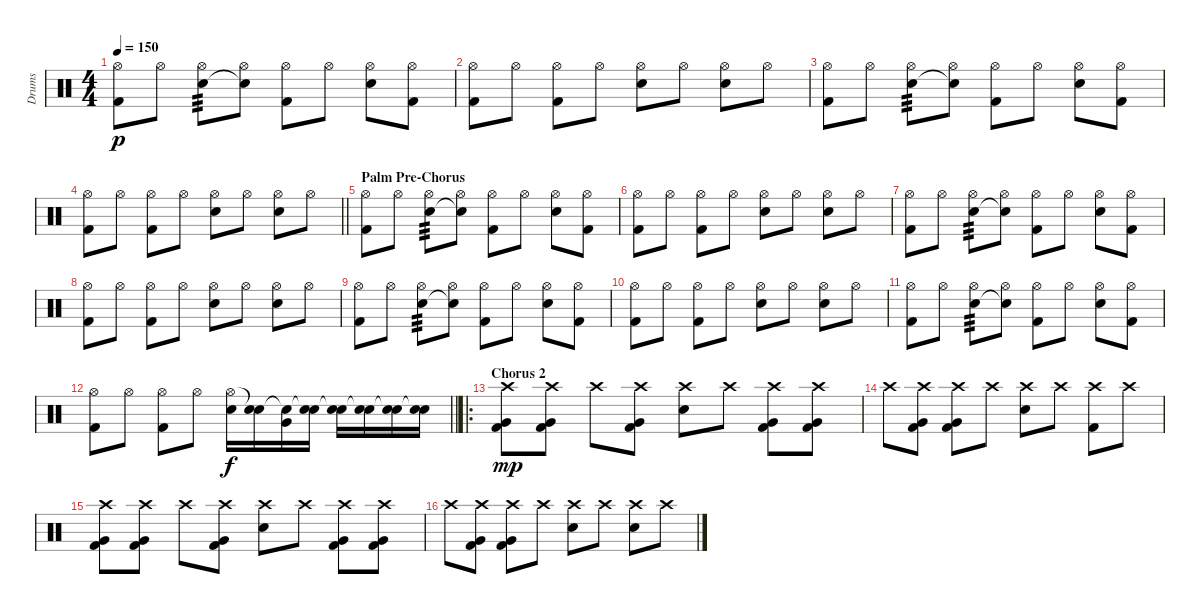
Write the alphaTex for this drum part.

\track ("Drums" "Drums") {instrument percussion}
\staff {score}
\articulation defaults
\ts (4 4)
\tempo 150
\clef neutral
\ks c
("Hi-Hat (open)" "Kick (hit) 2").8{dy p} "Hi-Hat (open)".8 ("Hi-Hat (open)" "Electric Snare (hit)").8{tp 3} ("Hi-Hat (open)" "Electric Snare (hit)"{t}).8 ("Hi-Hat (open)" "Kick (hit) 2").8 "Hi-Hat (open)".8 ("Hi-Hat (open)" "Electric Snare (hit)").8 ("Hi-Hat (open)" "Kick (hit) 2").8 |
("Hi-Hat (open)" "Kick (hit) 2").8 "Hi-Hat (open)".8 ("Hi-Hat (open)" "Kick (hit) 2").8 "Hi-Hat (open)".8 ("Hi-Hat (open)" "Electric Snare (hit)").8 "Hi-Hat (open)".8 ("Hi-Hat (open)" "Electric Snare (hit)").8 "Hi-Hat (open)".8 |
("Hi-Hat (open)" "Kick (hit) 2").8 "Hi-Hat (open)".8 ("Hi-Hat (open)" "Electric Snare (hit)").8{tp 3} ("Hi-Hat (open)" "Electric Snare (hit)"{t}).8 ("Hi-Hat (open)" "Kick (hit) 2").8 "Hi-Hat (open)".8 ("Hi-Hat (open)" "Electric Snare (hit)").8 ("Hi-Hat (open)" "Kick (hit) 2").8 |
\barLineRight lightlight
("Hi-Hat (open)" "Kick (hit) 2").8 "Hi-Hat (open)".8 ("Hi-Hat (open)" "Kick (hit) 2").8 "Hi-Hat (open)".8 ("Hi-Hat (open)" "Electric Snare (hit)").8 "Hi-Hat (open)".8 ("Hi-Hat (open)" "Electric Snare (hit)").8 "Hi-Hat (open)".8 |
\section ("" "Palm Pre-Chorus")
("Hi-Hat (open)" "Kick (hit) 2").8 "Hi-Hat (open)".8 ("Hi-Hat (open)" "Electric Snare (hit)").8{tp 3} ("Hi-Hat (open)" "Electric Snare (hit)"{t}).8 ("Hi-Hat (open)" "Kick (hit) 2").8 "Hi-Hat (open)".8 ("Hi-Hat (open)" "Electric Snare (hit)").8 ("Hi-Hat (open)" "Kick (hit) 2").8 |
("Hi-Hat (open)" "Kick (hit) 2").8 "Hi-Hat (open)".8 ("Hi-Hat (open)" "Kick (hit) 2").8 "Hi-Hat (open)".8 ("Hi-Hat (open)" "Electric Snare (hit)").8 "Hi-Hat (open)".8 ("Hi-Hat (open)" "Electric Snare (hit)").8 "Hi-Hat (open)".8 |
("Hi-Hat (open)" "Kick (hit) 2").8 "Hi-Hat (open)".8 ("Hi-Hat (open)" "Electric Snare (hit)").8{tp 3} ("Hi-Hat (open)" "Electric Snare (hit)"{t}).8 ("Hi-Hat (open)" "Kick (hit) 2").8 "Hi-Hat (open)".8 ("Hi-Hat (open)" "Electric Snare (hit)").8 ("Hi-Hat (open)" "Kick (hit) 2").8 |
("Hi-Hat (open)" "Kick (hit) 2").8 "Hi-Hat (open)".8 ("Hi-Hat (open)" "Kick (hit) 2").8 "Hi-Hat (open)".8 ("Hi-Hat (open)" "Electric Snare (hit)").8 "Hi-Hat (open)".8 ("Hi-Hat (open)" "Electric Snare (hit)").8 "Hi-Hat (open)".8 |
("Hi-Hat (open)" "Kick (hit) 2").8 "Hi-Hat (open)".8 ("Hi-Hat (open)" "Electric Snare (hit)").8{tp 3} ("Hi-Hat (open)" "Electric Snare (hit)"{t}).8 ("Hi-Hat (open)" "Kick (hit) 2").8 "Hi-Hat (open)".8 ("Hi-Hat (open)" "Electric Snare (hit)").8 ("Hi-Hat (open)" "Kick (hit) 2").8 |
("Hi-Hat (open)" "Kick (hit) 2").8 "Hi-Hat (open)".8 ("Hi-Hat (open)" "Kick (hit) 2").8 "Hi-Hat (open)".8 ("Hi-Hat (open)" "Electric Snare (hit)").8 "Hi-Hat (open)".8 ("Hi-Hat (open)" "Electric Snare (hit)").8 "Hi-Hat (open)".8 |
("Hi-Hat (open)" "Kick (hit) 2").8 "Hi-Hat (open)".8 ("Hi-Hat (open)" "Electric Snare (hit)").8{tp 3} ("Hi-Hat (open)" "Electric Snare (hit)"{t}).8 ("Hi-Hat (open)" "Kick (hit) 2").8 "Hi-Hat (open)".8 ("Hi-Hat (open)" "Electric Snare (hit)").8 ("Hi-Hat (open)" "Kick (hit) 2").8 |
\barLineRight lightlight
("Hi-Hat (open)" "Kick (hit) 2").8 "Hi-Hat (open)".8 ("Hi-Hat (open)" "Kick (hit) 2").8 "Hi-Hat (open)".8 ("Hi-Hat (open)" "Electric Snare (hit)").16{dy f} ("Snare (hit)"{t} "Electric Snare (hit)").16 ("Snare (hit)"{t} "Very Low Tom (hit)").16 ("Snare (hit)"{t} "Electric Snare (hit)").16 ("Snare (hit)"{t} "Electric Snare (hit)").16 ("Snare (hit)"{t} "Electric Snare (hit)").16 ("Snare (hit)"{t} "Electric Snare (hit)").16 ("Snare (hit)"{t} "Electric Snare (hit)").16 |
\ro
\section ("" "Chorus 2")
("Crash high (hit)" "Very Low Tom (hit)" "Kick (hit) 2").8{dy mp} ("Crash high (hit)" "Very Low Tom (hit)" "Kick (hit) 2").8 "Crash high (hit)".8 ("Crash high (hit)" "Very Low Tom (hit)" "Kick (hit) 2").8 ("Crash high (hit)" "Electric Snare (hit)").8 "Crash high (hit)".8 ("Crash high (hit)" "Very Low Tom (hit)" "Kick (hit) 2").8 ("Crash high (hit)" "Very Low Tom (hit)" "Kick (hit) 2").8 |
"Crash high (hit)".8 ("Crash high (hit)" "Very Low Tom (hit)" "Kick (hit) 2").8 ("Crash high (hit)" "Very Low Tom (hit)" "Kick (hit) 2").8 "Crash high (hit)".8 ("Crash high (hit)" "Electric Snare (hit)").8 "Crash high (hit)".8 ("Crash high (hit)" "Kick (hit) 2").8 "Crash high (hit)".8 |
("Crash high (hit)" "Very Low Tom (hit)" "Kick (hit) 2").8 ("Crash high (hit)" "Very Low Tom (hit)" "Kick (hit) 2").8 "Crash high (hit)".8 ("Crash high (hit)" "Very Low Tom (hit)" "Kick (hit) 2").8 ("Crash high (hit)" "Electric Snare (hit)").8 "Crash high (hit)".8 ("Crash high (hit)" "Very Low Tom (hit)" "Kick (hit) 2").8 ("Crash high (hit)" "Very Low Tom (hit)" "Kick (hit) 2").8 |
"Crash high (hit)".8 ("Crash high (hit)" "Very Low Tom (hit)" "Kick (hit) 2").8 ("Crash high (hit)" "Very Low Tom (hit)" "Kick (hit) 2").8 "Crash high (hit)".8 ("Crash high (hit)" "Electric Snare (hit)").8 "Crash high (hit)".8 ("Crash high (hit)" "Electric Snare (hit)").8 "Crash high (hit)".8
